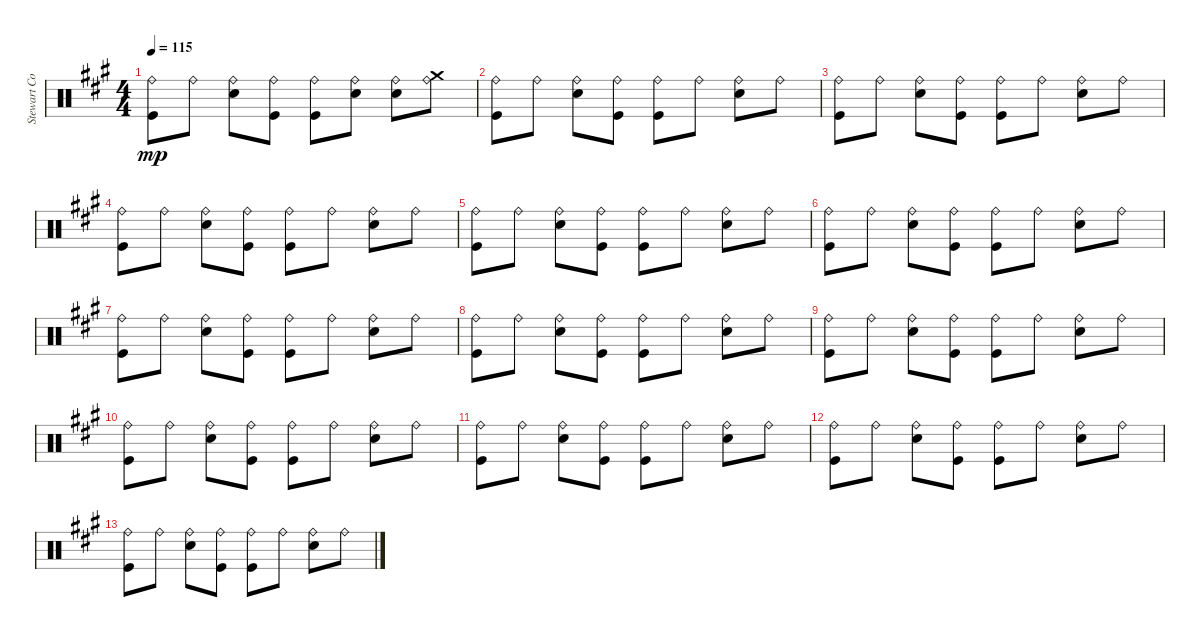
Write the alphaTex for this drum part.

\track ("Stewart Copeland" "Stewart Co") {instrument percussion}
\staff {score}
\articulation defaults
\ts (4 4)
\tempo 115
\clef neutral
\ks a
("Kick (hit)" "Ride (bell)").8{dy mp} "Ride (bell)".8 ("Snare (hit) 2" "Ride (bell)").8 ("Kick (hit)" "Ride (bell)").8 ("Kick (hit)" "Ride (bell)").8 ("Ride (bell)" "Snare (hit) 2").8 ("Snare (hit) 2" "Ride (bell)").8 ("Ride (bell)" "Crash medium (hit)").8 |
("Kick (hit)" "Ride (bell)").8 "Ride (bell)".8 ("Snare (hit) 2" "Ride (bell)").8 ("Kick (hit)" "Ride (bell)").8 ("Kick (hit)" "Ride (bell)").8 "Ride (bell)".8 ("Snare (hit) 2" "Ride (bell)").8 "Ride (bell)".8 |
("Kick (hit)" "Ride (bell)").8 "Ride (bell)".8 ("Snare (hit) 2" "Ride (bell)").8 ("Kick (hit)" "Ride (bell)").8 ("Kick (hit)" "Ride (bell)").8 "Ride (bell)".8 ("Snare (hit) 2" "Ride (bell)").8 "Ride (bell)".8 |
("Kick (hit)" "Ride (bell)").8 "Ride (bell)".8 ("Snare (hit) 2" "Ride (bell)").8 ("Kick (hit)" "Ride (bell)").8 ("Kick (hit)" "Ride (bell)").8 "Ride (bell)".8 ("Snare (hit) 2" "Ride (bell)").8 "Ride (bell)".8 |
("Kick (hit)" "Ride (bell)").8 "Ride (bell)".8 ("Snare (hit) 2" "Ride (bell)").8 ("Kick (hit)" "Ride (bell)").8 ("Kick (hit)" "Ride (bell)").8 "Ride (bell)".8 ("Snare (hit) 2" "Ride (bell)").8 "Ride (bell)".8 |
("Kick (hit)" "Ride (bell)").8 "Ride (bell)".8 ("Snare (hit) 2" "Ride (bell)").8 ("Kick (hit)" "Ride (bell)").8 ("Kick (hit)" "Ride (bell)").8 "Ride (bell)".8 ("Snare (hit) 2" "Ride (bell)").8 "Ride (bell)".8 |
("Kick (hit)" "Ride (bell)").8 "Ride (bell)".8 ("Snare (hit) 2" "Ride (bell)").8 ("Kick (hit)" "Ride (bell)").8 ("Kick (hit)" "Ride (bell)").8 "Ride (bell)".8 ("Snare (hit) 2" "Ride (bell)").8 "Ride (bell)".8 |
("Kick (hit)" "Ride (bell)").8 "Ride (bell)".8 ("Snare (hit) 2" "Ride (bell)").8 ("Kick (hit)" "Ride (bell)").8 ("Kick (hit)" "Ride (bell)").8 "Ride (bell)".8 ("Snare (hit) 2" "Ride (bell)").8 "Ride (bell)".8 |
("Kick (hit)" "Ride (bell)").8 "Ride (bell)".8 ("Snare (hit) 2" "Ride (bell)").8 ("Kick (hit)" "Ride (bell)").8 ("Kick (hit)" "Ride (bell)").8 "Ride (bell)".8 ("Snare (hit) 2" "Ride (bell)").8 "Ride (bell)".8 |
("Kick (hit)" "Ride (bell)").8 "Ride (bell)".8 ("Snare (hit) 2" "Ride (bell)").8 ("Kick (hit)" "Ride (bell)").8 ("Kick (hit)" "Ride (bell)").8 "Ride (bell)".8 ("Snare (hit) 2" "Ride (bell)").8 "Ride (bell)".8 |
("Kick (hit)" "Ride (bell)").8 "Ride (bell)".8 ("Snare (hit) 2" "Ride (bell)").8 ("Kick (hit)" "Ride (bell)").8 ("Kick (hit)" "Ride (bell)").8 "Ride (bell)".8 ("Snare (hit) 2" "Ride (bell)").8 "Ride (bell)".8 |
("Kick (hit)" "Ride (bell)").8 "Ride (bell)".8 ("Snare (hit) 2" "Ride (bell)").8 ("Kick (hit)" "Ride (bell)").8 ("Kick (hit)" "Ride (bell)").8 "Ride (bell)".8 ("Snare (hit) 2" "Ride (bell)").8 "Ride (bell)".8 |
("Kick (hit)" "Ride (bell)").8 "Ride (bell)".8 ("Snare (hit) 2" "Ride (bell)").8 ("Kick (hit)" "Ride (bell)").8 ("Kick (hit)" "Ride (bell)").8 "Ride (bell)".8 ("Snare (hit) 2" "Ride (bell)").8 "Ride (bell)".8
